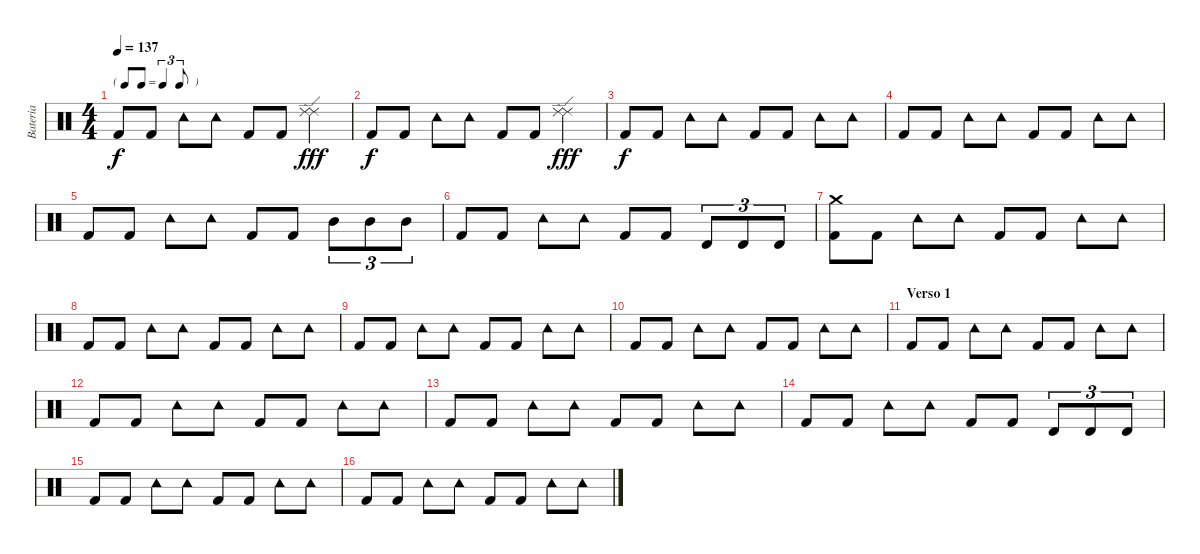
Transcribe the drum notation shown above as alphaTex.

\track ("Bateria" "Bateria") {instrument percussion}
\staff {score}
\articulation defaults
\ts (4 4)
\tf triplet8th
\tempo 137
\clef neutral
\ks c "Kick (hit) 2".8{dy f} "Kick (hit) 2".8 "Tambourine (hit)".8 "Tambourine (hit)".8 "Kick (hit) 2".8 "Kick (hit) 2".8
("Ride (edge) 2" "Ride (edge) 2").4{dy fff} |
"Kick (hit) 2".8{dy f} "Kick (hit) 2".8 "Tambourine (hit)".8 "Tambourine (hit)".8 "Kick (hit) 2".8 "Kick (hit) 2".8 ("Ride (edge) 2" "Ride (edge) 2").4{dy fff} |
"Kick (hit) 2".8{dy f} "Kick (hit) 2".8 "Tambourine (hit)".8 "Tambourine (hit)".8 "Kick (hit) 2".8 "Kick (hit) 2".8 "Tambourine (hit)".8 "Tambourine (hit)".8 |
"Kick (hit) 2".8 "Kick (hit) 2".8 "Tambourine (hit)".8 "Tambourine (hit)".8 "Kick (hit) 2".8 "Kick (hit) 2".8 "Tambourine (hit)".8 "Tambourine (hit)".8 |
"Kick (hit) 2".8 "Kick (hit) 2".8 "Tambourine (hit)".8 "Tambourine (hit)".8 "Kick (hit) 2".8 "Kick (hit) 2".8 "Mid Tom (hit)".8{tu (3 2)} "Mid Tom (hit)".8{tu (3 2)} "Mid Tom (hit)".8{tu (3 2)} |
"Kick (hit) 2".8 "Kick (hit) 2".8 "Tambourine (hit)".8 "Tambourine (hit)".8 "Kick (hit) 2".8 "Kick (hit) 2".8 "Timbale high (hit)".8{tu (3 2)} "Timbale high (hit)".8{tu (3 2)} "Timbale high (hit)".8{tu (3 2)} |
("Kick (hit) 2" "Crash medium (hit)").8 "Kick (hit) 2".8 "Tambourine (hit)".8 "Tambourine (hit)".8 "Kick (hit) 2".8 "Kick (hit) 2".8 "Tambourine (hit)".8 "Tambourine (hit)".8 |
"Kick (hit) 2".8 "Kick (hit) 2".8 "Tambourine (hit)".8 "Tambourine (hit)".8 "Kick (hit) 2".8 "Kick (hit) 2".8 "Tambourine (hit)".8 "Tambourine (hit)".8 |
"Kick (hit) 2".8 "Kick (hit) 2".8 "Tambourine (hit)".8 "Tambourine (hit)".8 "Kick (hit) 2".8 "Kick (hit) 2".8 "Tambourine (hit)".8 "Tambourine (hit)".8 |
"Kick (hit) 2".8 "Kick (hit) 2".8 "Tambourine (hit)".8 "Tambourine (hit)".8 "Kick (hit) 2".8 "Kick (hit) 2".8 "Tambourine (hit)".8 "Tambourine (hit)".8 |
\section ("" "Verso 1")
"Kick (hit) 2".8 "Kick (hit) 2".8 "Tambourine (hit)".8 "Tambourine (hit)".8 "Kick (hit) 2".8 "Kick (hit) 2".8 "Tambourine (hit)".8 "Tambourine (hit)".8 |
"Kick (hit) 2".8 "Kick (hit) 2".8 "Tambourine (hit)".8 "Tambourine (hit)".8 "Kick (hit) 2".8 "Kick (hit) 2".8 "Tambourine (hit)".8 "Tambourine (hit)".8 |
"Kick (hit) 2".8 "Kick (hit) 2".8 "Tambourine (hit)".8 "Tambourine (hit)".8 "Kick (hit) 2".8 "Kick (hit) 2".8 "Tambourine (hit)".8 "Tambourine (hit)".8 |
"Kick (hit) 2".8 "Kick (hit) 2".8 "Tambourine (hit)".8 "Tambourine (hit)".8 "Kick (hit) 2".8 "Kick (hit) 2".8 "Timbale high (hit)".8{tu (3 2)} "Timbale high (hit)".8{tu (3 2)} "Timbale high (hit)".8{tu (3 2)} |
"Kick (hit) 2".8 "Kick (hit) 2".8 "Tambourine (hit)".8 "Tambourine (hit)".8 "Kick (hit) 2".8 "Kick (hit) 2".8 "Tambourine (hit)".8 "Tambourine (hit)".8 |
"Kick (hit) 2".8 "Kick (hit) 2".8 "Tambourine (hit)".8 "Tambourine (hit)".8 "Kick (hit) 2".8 "Kick (hit) 2".8 "Tambourine (hit)".8 "Tambourine (hit)".8
